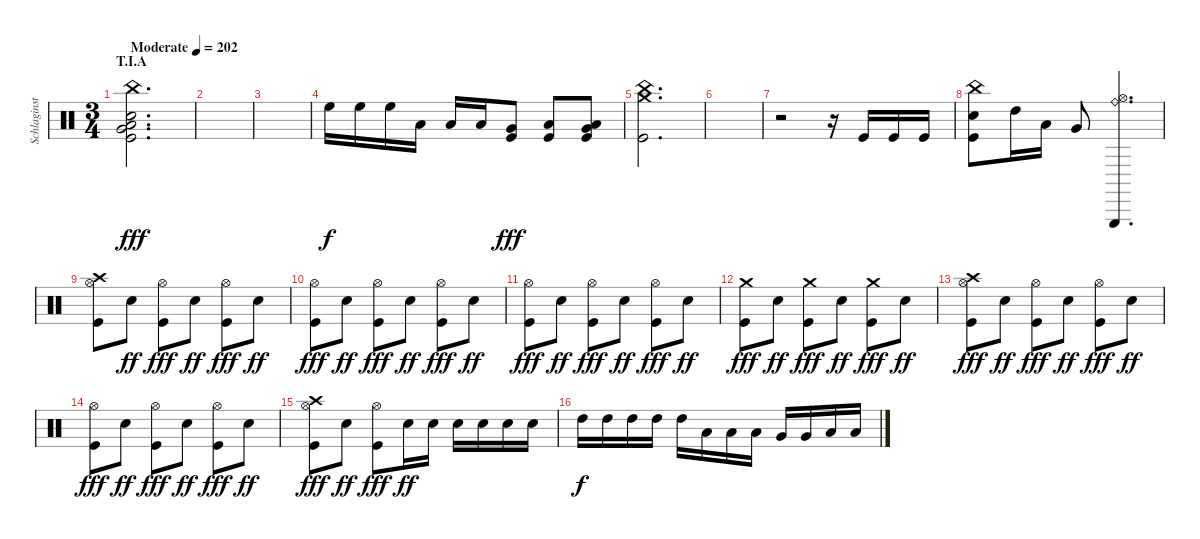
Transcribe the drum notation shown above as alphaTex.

\track ("Schlaginstrumente - Auswahl" "Schlaginst") {instrument percussion}
\staff {score}
\articulation defaults
\ts (3 4)
\section ("" "T.I.A")
\tempo (202 "Moderate")
\clef neutral
\ks c
("China (hit)" "Low Tom (hit)" "Snare (hit) 2" "Very Low Tom (hit)" "Kick (hit)").2{d dy fff} |
|
|
"High Floor Tom (hit)".16{dy f} "High Floor Tom (hit)".16 "High Floor Tom (hit)".16 "Low Tom (hit)".16 "Low Tom (hit)".16 "Low Tom (hit)".16 ("Very Low Tom (hit)" "Kick (hit)").8{dy fff} ("Low Tom (hit)" "Kick (hit)").8 ("Low Floor Tom (hit)" "Very Low Tom (hit)" "Kick (hit)").8 |
("Crash medium (hit)" "China (hit)" "Kick (hit)").2{d} |
|
r.2 r.16 "Kick (hit)".16 "Kick (hit)".16 "Kick (hit)".16 |
("China (hit)" "Snare (hit) 2" "Kick (hit)").8 "High Tom (hit)".16 "Low Tom (hit)".16 "Very Low Tom (hit)".8 ("Triangle (hit)" "Ride (bell)" "Hi-Hat (open)").4{d} |
("Crash high (hit)" "Hi-Hat (open)" "Kick (hit)").8 "Snare (hit) 2".8{dy ff} ("Hi-Hat (open)" "Kick (hit)").8{dy fff} "Snare (hit) 2".8{dy ff} ("Hi-Hat (open)" "Kick (hit)").8{dy fff} "Snare (hit) 2".8{dy ff} |
("Hi-Hat (open)" "Kick (hit)").8{dy fff} "Snare (hit) 2".8{dy ff} ("Hi-Hat (open)" "Kick (hit)").8{dy fff} "Snare (hit) 2".8{dy ff} ("Hi-Hat (open)" "Kick (hit)").8{dy fff} "Snare (hit) 2".8{dy ff} |
("Hi-Hat (open)" "Kick (hit)").8{dy fff} "Snare (hit) 2".8{dy ff} ("Hi-Hat (open)" "Kick (hit)").8{dy fff} "Snare (hit) 2".8{dy ff} ("Hi-Hat (open)" "Kick (hit)").8{dy fff} "Snare (hit) 2".8{dy ff} |
("Crash medium (hit)" "Kick (hit)").8{dy fff} "Snare (hit) 2".8{dy ff} ("Crash medium (hit)" "Kick (hit)").8{dy fff} "Snare (hit) 2".8{dy ff} ("Crash medium (hit)" "Kick (hit)").8{dy fff} "Snare (hit) 2".8{dy ff} |
("Crash high (hit)" "Hi-Hat (open)" "Kick (hit)").8{dy fff} "Snare (hit) 2".8{dy ff} ("Hi-Hat (open)" "Kick (hit)").8{dy fff} "Snare (hit) 2".8{dy ff} ("Hi-Hat (open)" "Kick (hit)").8{dy fff} "Snare (hit) 2".8{dy ff} |
("Hi-Hat (open)" "Kick (hit)").8{dy fff} "Snare (hit) 2".8{dy ff} ("Hi-Hat (open)" "Kick (hit)").8{dy fff} "Snare (hit) 2".8{dy ff} ("Hi-Hat (open)" "Kick (hit)").8{dy fff} "Snare (hit) 2".8{dy ff} |
("Crash high (hit)" "Hi-Hat (open)" "Kick (hit)").8{dy fff} "Snare (hit) 2".8{dy ff} ("Hi-Hat (open)" "Kick (hit)").8{dy fff} "Snare (hit) 2".16{dy ff} "Snare (hit) 2".16 "Snare (hit) 2".16 "Snare (hit) 2".16 "Snare (hit) 2".16 "Snare (hit) 2".16 |
"High Tom (hit)".16{dy f} "High Tom (hit)".16 "High Tom (hit)".16 "High Tom (hit)".16 "High Tom (hit)".16 "Low Tom (hit)".16 "Low Tom (hit)".16 "Low Tom (hit)".16 "Very Low Tom (hit)".16 "Very Low Tom (hit)".16 "Low Floor Tom (hit)".16 "Low Floor Tom (hit)".16
